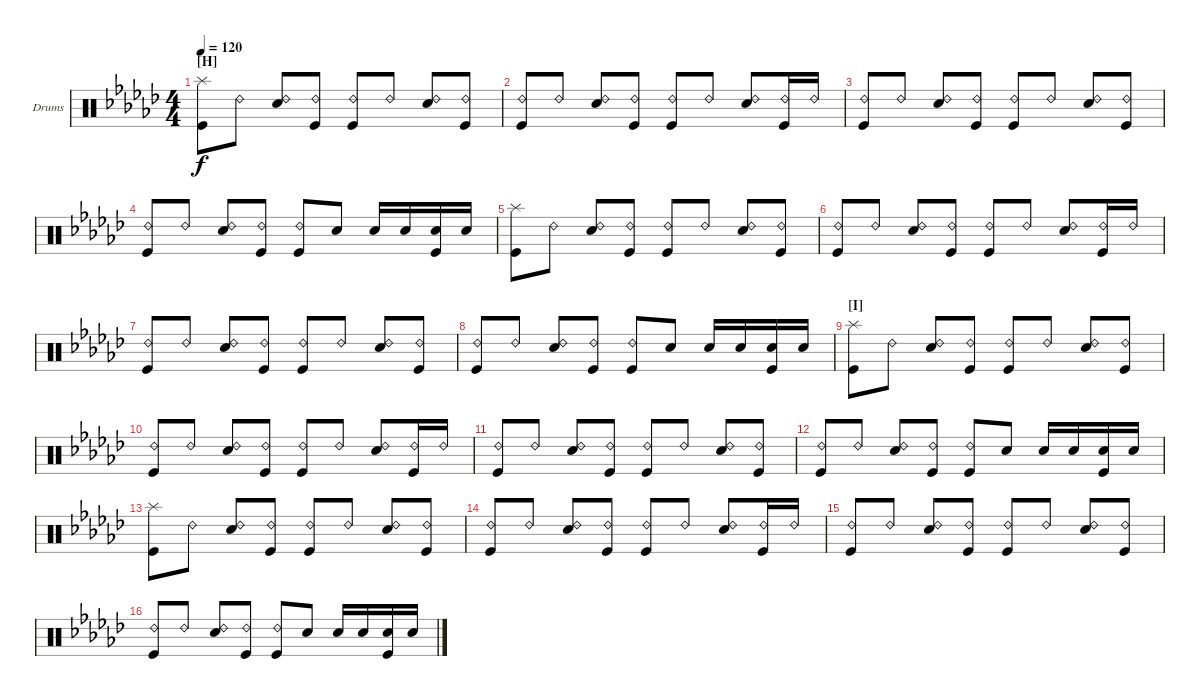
\defaultSystemsLayout 4
\bracketExtendMode groupsimilarinstruments
\firstSystemTrackNameOrientation horizontal
\otherSystemsTrackNameOrientation horizontal
\track ("Drumkit" "Drums") {instrument percussion}
\staff {score}
\articulation defaults
\ts (4 4)
\section ("H" "")
\tempo 120
\clef neutral
\ks ebminor
("Kick (hit)" "Splash (hit)").8{dy f} "Ride (bell) 2".8 ("Ride (bell) 2" "Snare (hit) 2").8 ("Kick (hit)" "Ride (bell) 2").8 ("Ride (bell) 2" "Kick (hit)").8 "Ride (bell) 2".8 ("Ride (bell) 2" "Snare (hit) 2").8 ("Ride (bell) 2" "Kick (hit)").8 |
("Kick (hit)" "Ride (bell) 2").8 "Ride (bell) 2".8 ("Ride (bell) 2" "Snare (hit) 2").8 ("Kick (hit)" "Ride (bell) 2").8 ("Ride (bell) 2" "Kick (hit)").8 "Ride (bell) 2".8 ("Ride (bell) 2" "Snare (hit) 2").8 ("Ride (bell) 2" "Kick (hit)").16 "Ride (bell) 2".16 |
("Kick (hit)" "Ride (bell) 2").8 "Ride (bell) 2".8 ("Ride (bell) 2" "Snare (hit) 2").8 ("Kick (hit)" "Ride (bell) 2").8 ("Ride (bell) 2" "Kick (hit)").8 "Ride (bell) 2".8 ("Ride (bell) 2" "Snare (hit) 2").8 ("Ride (bell) 2" "Kick (hit)").8 |
("Kick (hit)" "Ride (bell) 2").8 "Ride (bell) 2".8 ("Ride (bell) 2" "Snare (hit) 2").8 ("Ride (bell) 2" "Kick (hit)").8 ("Ride (bell) 2" "Kick (hit)").8 "Snare (hit) 2".8 "Snare (hit) 2".16 "Snare (hit) 2".16 ("Snare (hit) 2" "Kick (hit)").16 "Snare (hit) 2".16 |
("Kick (hit)" "Splash (hit)").8 "Ride (bell) 2".8 ("Ride (bell) 2" "Snare (hit) 2").8 ("Kick (hit)" "Ride (bell) 2").8 ("Ride (bell) 2" "Kick (hit)").8 "Ride (bell) 2".8 ("Ride (bell) 2" "Snare (hit) 2").8 ("Ride (bell) 2" "Kick (hit)").8 |
("Kick (hit)" "Ride (bell) 2").8 "Ride (bell) 2".8 ("Ride (bell) 2" "Snare (hit) 2").8 ("Kick (hit)" "Ride (bell) 2").8 ("Ride (bell) 2" "Kick (hit)").8 "Ride (bell) 2".8 ("Ride (bell) 2" "Snare (hit) 2").8 ("Ride (bell) 2" "Kick (hit)").16 "Ride (bell) 2".16 |
("Kick (hit)" "Ride (bell) 2").8 "Ride (bell) 2".8 ("Ride (bell) 2" "Snare (hit) 2").8 ("Kick (hit)" "Ride (bell) 2").8 ("Ride (bell) 2" "Kick (hit)").8 "Ride (bell) 2".8 ("Ride (bell) 2" "Snare (hit) 2").8 ("Ride (bell) 2" "Kick (hit)").8 |
("Kick (hit)" "Ride (bell) 2").8 "Ride (bell) 2".8 ("Ride (bell) 2" "Snare (hit) 2").8 ("Ride (bell) 2" "Kick (hit)").8 ("Ride (bell) 2" "Kick (hit)").8 "Snare (hit) 2".8 "Snare (hit) 2".16 "Snare (hit) 2".16 ("Snare (hit) 2" "Kick (hit)").16 "Snare (hit) 2".16 |
\section ("I" "")
("Kick (hit)" "Splash (hit)").8 "Ride (bell) 2".8 ("Ride (bell) 2" "Snare (hit) 2").8 ("Kick (hit)" "Ride (bell) 2").8 ("Ride (bell) 2" "Kick (hit)").8 "Ride (bell) 2".8 ("Ride (bell) 2" "Snare (hit) 2").8 ("Ride (bell) 2" "Kick (hit)").8 |
("Kick (hit)" "Ride (bell) 2").8 "Ride (bell) 2".8 ("Ride (bell) 2" "Snare (hit) 2").8 ("Kick (hit)" "Ride (bell) 2").8 ("Ride (bell) 2" "Kick (hit)").8 "Ride (bell) 2".8 ("Ride (bell) 2" "Snare (hit) 2").8 ("Ride (bell) 2" "Kick (hit)").16 "Ride (bell) 2".16 |
("Kick (hit)" "Ride (bell) 2").8 "Ride (bell) 2".8 ("Ride (bell) 2" "Snare (hit) 2").8 ("Kick (hit)" "Ride (bell) 2").8 ("Ride (bell) 2" "Kick (hit)").8 "Ride (bell) 2".8 ("Ride (bell) 2" "Snare (hit) 2").8 ("Ride (bell) 2" "Kick (hit)").8 |
("Kick (hit)" "Ride (bell) 2").8 "Ride (bell) 2".8 ("Ride (bell) 2" "Snare (hit) 2").8 ("Ride (bell) 2" "Kick (hit)").8 ("Ride (bell) 2" "Kick (hit)").8 "Snare (hit) 2".8 "Snare (hit) 2".16 "Snare (hit) 2".16 ("Snare (hit) 2" "Kick (hit)").16 "Snare (hit) 2".16 |
("Kick (hit)" "Splash (hit)").8 "Ride (bell) 2".8 ("Ride (bell) 2" "Snare (hit) 2").8 ("Kick (hit)" "Ride (bell) 2").8 ("Ride (bell) 2" "Kick (hit)").8 "Ride (bell) 2".8 ("Ride (bell) 2" "Snare (hit) 2").8 ("Ride (bell) 2" "Kick (hit)").8 |
("Kick (hit)" "Ride (bell) 2").8 "Ride (bell) 2".8 ("Ride (bell) 2" "Snare (hit) 2").8 ("Kick (hit)" "Ride (bell) 2").8 ("Ride (bell) 2" "Kick (hit)").8 "Ride (bell) 2".8 ("Ride (bell) 2" "Snare (hit) 2").8 ("Ride (bell) 2" "Kick (hit)").16 "Ride (bell) 2".16 |
("Kick (hit)" "Ride (bell) 2").8 "Ride (bell) 2".8 ("Ride (bell) 2" "Snare (hit) 2").8 ("Kick (hit)" "Ride (bell) 2").8 ("Ride (bell) 2" "Kick (hit)").8 "Ride (bell) 2".8 ("Ride (bell) 2" "Snare (hit) 2").8 ("Ride (bell) 2" "Kick (hit)").8 |
("Kick (hit)" "Ride (bell) 2").8 "Ride (bell) 2".8 ("Ride (bell) 2" "Snare (hit) 2").8 ("Ride (bell) 2" "Kick (hit)").8 ("Ride (bell) 2" "Kick (hit)").8 "Snare (hit) 2".8 "Snare (hit) 2".16 "Snare (hit) 2".16 ("Snare (hit) 2" "Kick (hit)").16 "Snare (hit) 2".16
